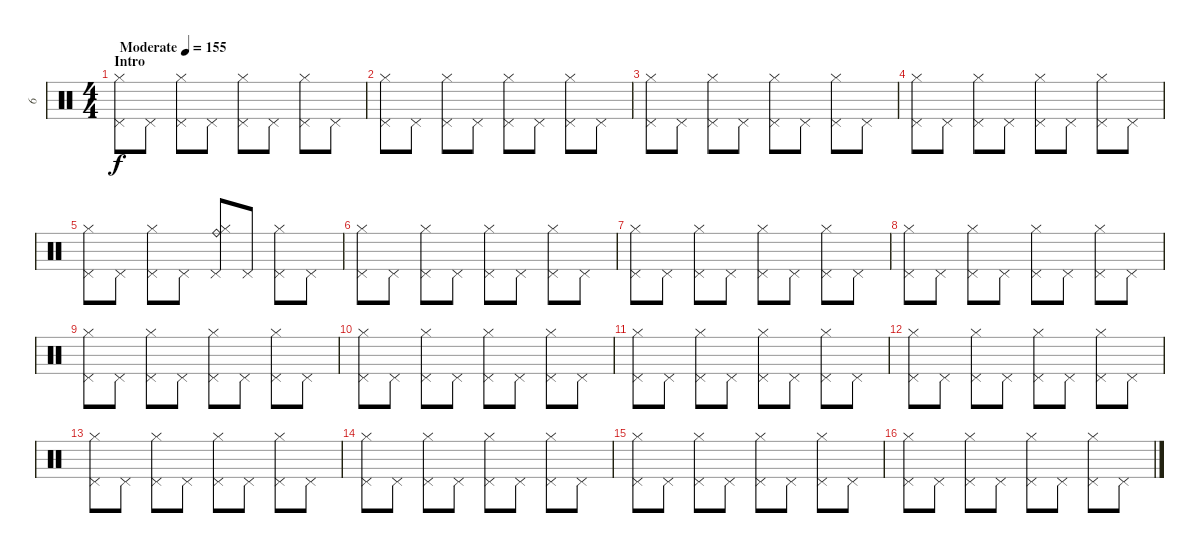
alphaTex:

\track ("6" "6") {instrument percussion}
\staff {score}
\articulation defaults
\ts (4 4)
\section ("" "Intro")
\tempo (155 "Moderate")
\clef neutral
\ks c
("Pedal Hi-Hat (hit)" "Hi-Hat (closed)").8{dy f} "Pedal Hi-Hat (hit)".8 ("Pedal Hi-Hat (hit)" "Hi-Hat (closed)").8 "Pedal Hi-Hat (hit)".8 ("Pedal Hi-Hat (hit)" "Hi-Hat (closed)").8 "Pedal Hi-Hat (hit)".8 ("Pedal Hi-Hat (hit)" "Hi-Hat (closed)").8 "Pedal Hi-Hat (hit)".8 |
("Pedal Hi-Hat (hit)" "Hi-Hat (closed)").8 "Pedal Hi-Hat (hit)".8 ("Pedal Hi-Hat (hit)" "Hi-Hat (closed)").8 "Pedal Hi-Hat (hit)".8 ("Pedal Hi-Hat (hit)" "Hi-Hat (closed)").8 "Pedal Hi-Hat (hit)".8 ("Pedal Hi-Hat (hit)" "Hi-Hat (closed)").8 "Pedal Hi-Hat (hit)".8 |
("Pedal Hi-Hat (hit)" "Hi-Hat (closed)").8 "Pedal Hi-Hat (hit)".8 ("Pedal Hi-Hat (hit)" "Hi-Hat (closed)").8 "Pedal Hi-Hat (hit)".8 ("Pedal Hi-Hat (hit)" "Hi-Hat (closed)").8 "Pedal Hi-Hat (hit)".8 ("Pedal Hi-Hat (hit)" "Hi-Hat (closed)").8 "Pedal Hi-Hat (hit)".8 |
("Pedal Hi-Hat (hit)" "Hi-Hat (closed)").8 "Pedal Hi-Hat (hit)".8 ("Pedal Hi-Hat (hit)" "Hi-Hat (closed)").8 "Pedal Hi-Hat (hit)".8 ("Pedal Hi-Hat (hit)" "Hi-Hat (closed)").8 "Pedal Hi-Hat (hit)".8 ("Pedal Hi-Hat (hit)" "Hi-Hat (closed)").8 "Pedal Hi-Hat (hit)".8 |
("Pedal Hi-Hat (hit)" "Hi-Hat (closed)").8 "Pedal Hi-Hat (hit)".8 ("Pedal Hi-Hat (hit)" "Hi-Hat (closed)").8 "Pedal Hi-Hat (hit)".8 ("Pedal Hi-Hat (hit)" "Hi-Hat (closed)" "Ride (bell)").8 "Pedal Hi-Hat (hit)".8 ("Pedal Hi-Hat (hit)" "Hi-Hat (closed)").8 "Pedal Hi-Hat (hit)".8 |
("Pedal Hi-Hat (hit)" "Hi-Hat (closed)").8 "Pedal Hi-Hat (hit)".8 ("Pedal Hi-Hat (hit)" "Hi-Hat (closed)").8 "Pedal Hi-Hat (hit)".8 ("Pedal Hi-Hat (hit)" "Hi-Hat (closed)").8 "Pedal Hi-Hat (hit)".8 ("Pedal Hi-Hat (hit)" "Hi-Hat (closed)").8 "Pedal Hi-Hat (hit)".8 |
("Pedal Hi-Hat (hit)" "Hi-Hat (closed)").8 "Pedal Hi-Hat (hit)".8 ("Pedal Hi-Hat (hit)" "Hi-Hat (closed)").8 "Pedal Hi-Hat (hit)".8 ("Pedal Hi-Hat (hit)" "Hi-Hat (closed)").8 "Pedal Hi-Hat (hit)".8 ("Pedal Hi-Hat (hit)" "Hi-Hat (closed)").8 "Pedal Hi-Hat (hit)".8 |
("Pedal Hi-Hat (hit)" "Hi-Hat (closed)").8 "Pedal Hi-Hat (hit)".8 ("Pedal Hi-Hat (hit)" "Hi-Hat (closed)").8 "Pedal Hi-Hat (hit)".8 ("Pedal Hi-Hat (hit)" "Hi-Hat (closed)").8 "Pedal Hi-Hat (hit)".8 ("Pedal Hi-Hat (hit)" "Hi-Hat (closed)").8 "Pedal Hi-Hat (hit)".8 |
("Pedal Hi-Hat (hit)" "Hi-Hat (closed)").8 "Pedal Hi-Hat (hit)".8 ("Pedal Hi-Hat (hit)" "Hi-Hat (closed)").8 "Pedal Hi-Hat (hit)".8 ("Pedal Hi-Hat (hit)" "Hi-Hat (closed)").8 "Pedal Hi-Hat (hit)".8 ("Pedal Hi-Hat (hit)" "Hi-Hat (closed)").8 "Pedal Hi-Hat (hit)".8 |
("Pedal Hi-Hat (hit)" "Hi-Hat (closed)").8 "Pedal Hi-Hat (hit)".8 ("Pedal Hi-Hat (hit)" "Hi-Hat (closed)").8 "Pedal Hi-Hat (hit)".8 ("Pedal Hi-Hat (hit)" "Hi-Hat (closed)").8 "Pedal Hi-Hat (hit)".8 ("Pedal Hi-Hat (hit)" "Hi-Hat (closed)").8 "Pedal Hi-Hat (hit)".8 |
("Pedal Hi-Hat (hit)" "Hi-Hat (closed)").8 "Pedal Hi-Hat (hit)".8 ("Pedal Hi-Hat (hit)" "Hi-Hat (closed)").8 "Pedal Hi-Hat (hit)".8 ("Pedal Hi-Hat (hit)" "Hi-Hat (closed)").8 "Pedal Hi-Hat (hit)".8 ("Pedal Hi-Hat (hit)" "Hi-Hat (closed)").8 "Pedal Hi-Hat (hit)".8 |
("Pedal Hi-Hat (hit)" "Hi-Hat (closed)").8 "Pedal Hi-Hat (hit)".8 ("Pedal Hi-Hat (hit)" "Hi-Hat (closed)").8 "Pedal Hi-Hat (hit)".8 ("Pedal Hi-Hat (hit)" "Hi-Hat (closed)").8 "Pedal Hi-Hat (hit)".8 ("Pedal Hi-Hat (hit)" "Hi-Hat (closed)").8 "Pedal Hi-Hat (hit)".8 |
("Pedal Hi-Hat (hit)" "Hi-Hat (closed)").8 "Pedal Hi-Hat (hit)".8 ("Pedal Hi-Hat (hit)" "Hi-Hat (closed)").8 "Pedal Hi-Hat (hit)".8 ("Pedal Hi-Hat (hit)" "Hi-Hat (closed)").8 "Pedal Hi-Hat (hit)".8 ("Pedal Hi-Hat (hit)" "Hi-Hat (closed)").8 "Pedal Hi-Hat (hit)".8 |
("Pedal Hi-Hat (hit)" "Hi-Hat (closed)").8 "Pedal Hi-Hat (hit)".8 ("Pedal Hi-Hat (hit)" "Hi-Hat (closed)").8 "Pedal Hi-Hat (hit)".8 ("Pedal Hi-Hat (hit)" "Hi-Hat (closed)").8 "Pedal Hi-Hat (hit)".8 ("Pedal Hi-Hat (hit)" "Hi-Hat (closed)").8 "Pedal Hi-Hat (hit)".8 |
("Pedal Hi-Hat (hit)" "Hi-Hat (closed)").8 "Pedal Hi-Hat (hit)".8 ("Pedal Hi-Hat (hit)" "Hi-Hat (closed)").8 "Pedal Hi-Hat (hit)".8 ("Pedal Hi-Hat (hit)" "Hi-Hat (closed)").8 "Pedal Hi-Hat (hit)".8 ("Pedal Hi-Hat (hit)" "Hi-Hat (closed)").8 "Pedal Hi-Hat (hit)".8 |
("Pedal Hi-Hat (hit)" "Hi-Hat (closed)").8 "Pedal Hi-Hat (hit)".8 ("Pedal Hi-Hat (hit)" "Hi-Hat (closed)").8 "Pedal Hi-Hat (hit)".8 ("Pedal Hi-Hat (hit)" "Hi-Hat (closed)").8 "Pedal Hi-Hat (hit)".8 ("Pedal Hi-Hat (hit)" "Hi-Hat (closed)").8 "Pedal Hi-Hat (hit)".8
